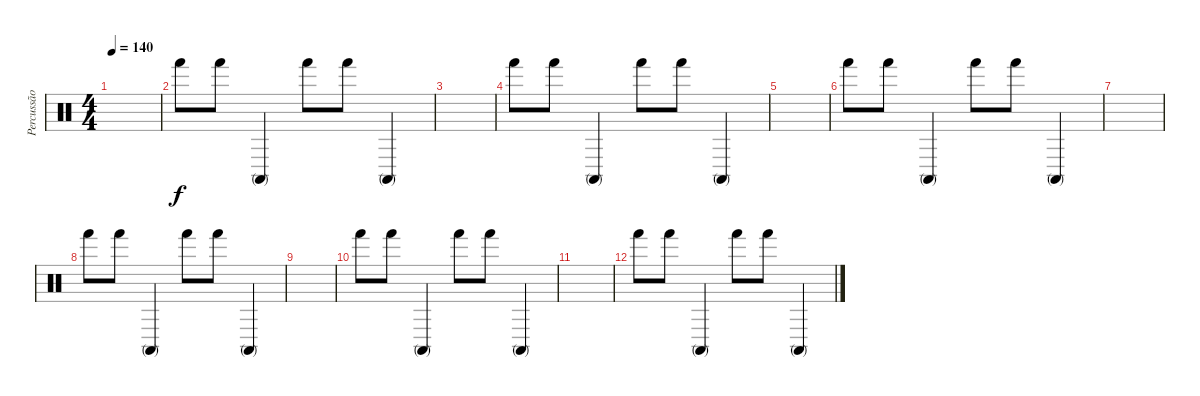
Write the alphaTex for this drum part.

\track ("Percussão" "Percussão") {instrument percussion}
\staff {score}
\articulation defaults
\ts (4 4)
\tempo 140
\clef neutral
\ks c
|
"Hand (hit)".8 "Hand (hit)".8 "Conga high (mute)".4 "Hand (hit)".8 "Hand (hit)".8 "Conga high (mute)".4 |
|
"Hand (hit)".8 "Hand (hit)".8 "Conga high (mute)".4 "Hand (hit)".8 "Hand (hit)".8 "Conga high (mute)".4 |
|
"Hand (hit)".8 "Hand (hit)".8 "Conga high (mute)".4 "Hand (hit)".8 "Hand (hit)".8 "Conga high (mute)".4 |
|
"Hand (hit)".8 "Hand (hit)".8 "Conga high (mute)".4 "Hand (hit)".8 "Hand (hit)".8 "Conga high (mute)".4 |
|
"Hand (hit)".8 "Hand (hit)".8 "Conga high (mute)".4 "Hand (hit)".8 "Hand (hit)".8 "Conga high (mute)".4 |
|
"Hand (hit)".8 "Hand (hit)".8 "Conga high (mute)".4 "Hand (hit)".8 "Hand (hit)".8 "Conga high (mute)".4
